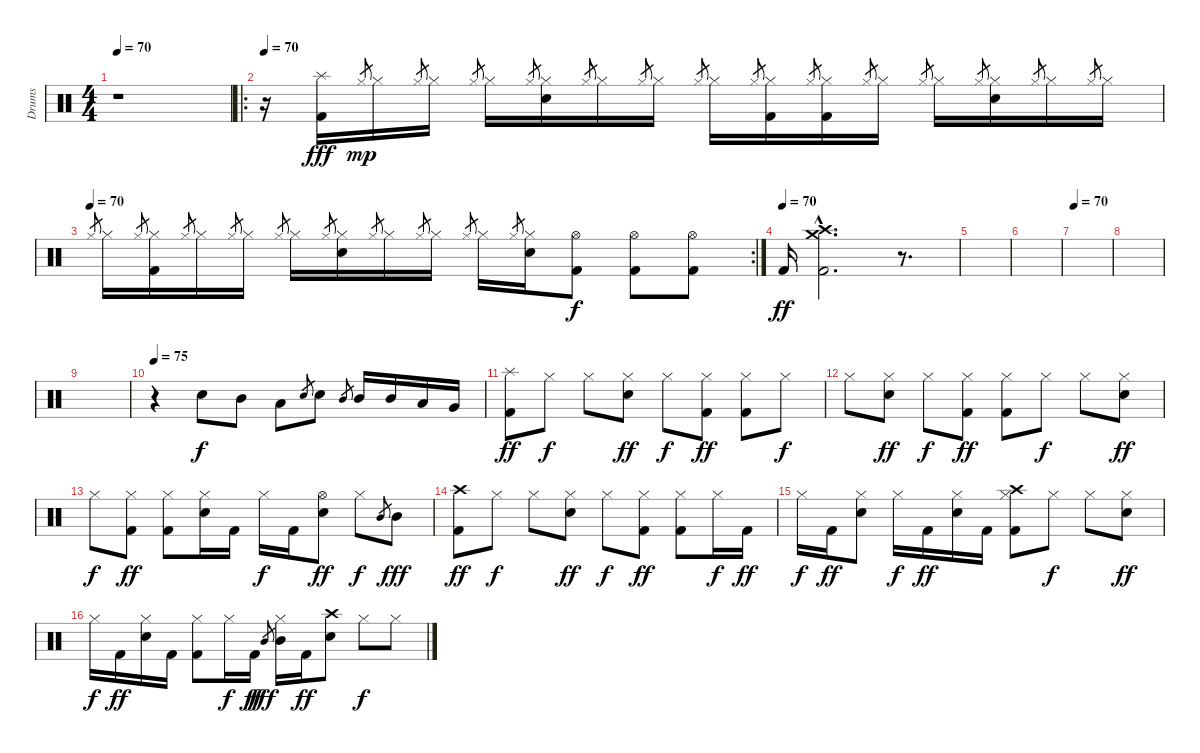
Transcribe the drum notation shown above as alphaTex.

\track ("Drums" "Drums") {instrument percussion}
\staff {score}
\articulation defaults
\ts (4 4)
\tempo 70
\clef neutral
\ks c
r.1{dy ff} |
\ro
\tempo 70
r.16 ("Splash (hit)" "Kick (hit) 2").16{dy fff} "Hi-Hat (closed)".8{gr dy mp} "Hi-Hat (closed)".16 "Hi-Hat (closed)".8{gr} "Hi-Hat (closed)".16 "Hi-Hat (closed)".8{gr} "Hi-Hat (closed)".16 "Hi-Hat (closed)".8{gr} ("Hi-Hat (closed)" "Electric Snare (hit)").16 "Hi-Hat (closed)".8{gr} "Hi-Hat (closed)".16 "Hi-Hat (closed)".8{gr} "Hi-Hat (closed)".16 "Hi-Hat (closed)".8{gr} "Hi-Hat (closed)".16 "Hi-Hat (closed)".8{gr} ("Hi-Hat (closed)" "Kick (hit) 2").16 "Hi-Hat (closed)".8{gr} ("Hi-Hat (closed)" "Kick (hit) 2").16 "Hi-Hat (closed)".8{gr} "Hi-Hat (closed)".16 "Hi-Hat (closed)".8{gr} "Hi-Hat (closed)".16 "Hi-Hat (closed)".8{gr} ("Hi-Hat (closed)" "Electric Snare (hit)").16 "Hi-Hat (closed)".8{gr} "Hi-Hat (closed)".16 "Hi-Hat (closed)".8{gr} "Hi-Hat (closed)".16 |
\rc 2
\tempo (70)
"Hi-Hat (closed)".8{gr} "Hi-Hat (closed)".16 "Hi-Hat (closed)".8{gr} ("Hi-Hat (closed)" "Kick (hit) 2").16 "Hi-Hat (closed)".8{gr} "Hi-Hat (closed)".16 "Hi-Hat (closed)".8{gr} "Hi-Hat (closed)".16 "Hi-Hat (closed)".8{gr} "Hi-Hat (closed)".16 "Hi-Hat (closed)".8{gr} ("Hi-Hat (closed)" "Electric Snare (hit)").16 "Hi-Hat (closed)".8{gr} "Hi-Hat (closed)".16 "Hi-Hat (closed)".8{gr} "Hi-Hat (closed)".16 "Hi-Hat (closed)".8{gr} "Hi-Hat (closed)".16 "Hi-Hat (closed)".8{gr} ("Hi-Hat (closed)" "Electric Snare (hit)").16 ("Hi-Hat (open)" "Kick (hit) 2").8{dy f} ("Hi-Hat (open)" "Kick (hit) 2").8 ("Hi-Hat (open)" "Kick (hit) 2").8 |
\tempo (70)
"Kick (hit) 2".16{dy ff} ("Crash high (hit)"{hac} "Crash medium (hit)" "Kick (hit) 2"{hac}).2{d} r.8{d} |
|
|
\tempo 70
|
|
|
\tempo 75
r.4 "Electric Snare (hit)".8{dy f} "Mid Tom (hit)".8 "Low Tom (hit)".8 "Electric Snare (hit)".8{gr} "Electric Snare (hit)".8 "Mid Tom (hit)".8{gr} "Mid Tom (hit)".16 "Mid Tom (hit)".16 "Low Tom (hit)".16 "Very Low Tom (hit)".16 |
("Splash (hit)" "Kick (hit) 2").8{dy ff} "Hi-Hat (closed)".8{dy f} "Hi-Hat (closed)".8 ("Hi-Hat (closed)" "Electric Snare (hit)").8{dy ff} "Hi-Hat (closed)".8{dy f} ("Hi-Hat (closed)" "Kick (hit) 2").8{dy ff} ("Hi-Hat (closed)" "Kick (hit) 2").8 "Hi-Hat (closed)".8{dy f} |
"Hi-Hat (closed)".8 ("Hi-Hat (closed)" "Electric Snare (hit)").8{dy ff} "Hi-Hat (closed)".8{dy f} ("Hi-Hat (closed)" "Kick (hit) 2").8{dy ff} ("Hi-Hat (closed)" "Kick (hit) 2").8 "Hi-Hat (closed)".8{dy f} "Hi-Hat (closed)".8 ("Hi-Hat (closed)" "Electric Snare (hit)").8{dy ff} |
"Hi-Hat (closed)".8{dy f} ("Hi-Hat (closed)" "Kick (hit) 2").8{dy ff} ("Hi-Hat (closed)" "Kick (hit) 2").8 ("Hi-Hat (closed)" "Electric Snare (hit)").16 "Kick (hit) 2".16 "Hi-Hat (closed)".16{dy f} "Kick (hit) 2".16 ("Hi-Hat (open)" "Electric Snare (hit)").8{dy ff} "Hi-Hat (closed)".8{dy f} "Mid Tom (hit)".8{gr} "Mid Tom (hit)".8{dy fff} |
("Crash high (hit)" "Kick (hit) 2").8{dy ff} "Hi-Hat (closed)".8{dy f} "Hi-Hat (closed)".8 ("Hi-Hat (closed)" "Electric Snare (hit)").8{dy ff} "Hi-Hat (closed)".8{dy f} ("Hi-Hat (closed)" "Kick (hit) 2").8{dy ff} ("Hi-Hat (closed)" "Kick (hit) 2").8 "Hi-Hat (closed)".16{dy f} "Kick (hit) 2".16{dy ff} |
"Hi-Hat (closed)".16{dy f} "Kick (hit) 2".16{dy ff} ("Hi-Hat (closed)" "Electric Snare (hit)").8 "Hi-Hat (closed)".16{dy f} "Kick (hit) 2".16{dy ff} ("Hi-Hat (closed)" "Electric Snare (hit)").16 "Kick (hit) 2".16 ("Hi-Hat (closed)" "Crash high (hit)" "Kick (hit) 2").8 "Hi-Hat (closed)".8{dy f} "Hi-Hat (closed)".8 ("Hi-Hat (closed)" "Electric Snare (hit)").8{dy ff} |
"Hi-Hat (closed)".16{dy f} "Kick (hit) 2".16{dy ff} ("Hi-Hat (closed)" "Electric Snare (hit)").16 "Kick (hit) 2".16 ("Hi-Hat (closed)" "Kick (hit) 2").8 "Hi-Hat (closed)".16{dy f} "Kick (hit) 2".16{dy ff} "Mid Tom (hit)".8{gr dy fff} ("Hi-Hat (closed)" "Mid Tom (hit)").16 "Kick (hit) 2".16{dy ff} ("Crash high (hit)" "Electric Snare (hit)").8 "Hi-Hat (closed)".8{dy f} "Hi-Hat (closed)".8
